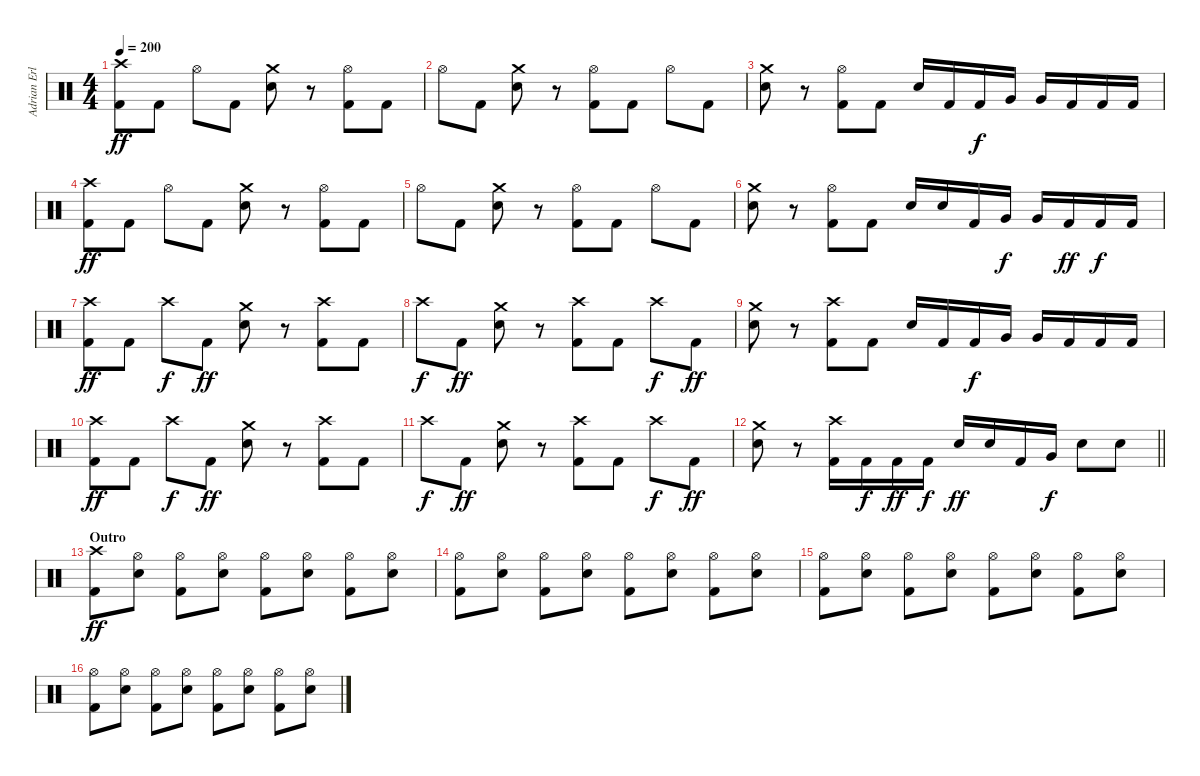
\track ("Adrian Erlandsson" "Adrian Erl") {instrument percussion}
\staff {score}
\articulation defaults
\ts (4 4)
\tempo 200
\clef neutral
\ks c
("Crash high (hit)" "Kick (hit) 2").8{dy ff} "Kick (hit) 2".8 "Hi-Hat (open)".8 "Kick (hit) 2".8 ("Crash medium (hit)" "Snare (hit) 2").8 r.8 ("Hi-Hat (open)" "Kick (hit) 2").8 "Kick (hit) 2".8 |
"Hi-Hat (open)".8 "Kick (hit) 2".8 ("Crash medium (hit)" "Snare (hit) 2").8 r.8 ("Hi-Hat (open)" "Kick (hit) 2").8 "Kick (hit) 2".8 "Hi-Hat (open)".8 "Kick (hit) 2".8 |
("Crash medium (hit)" "Snare (hit) 2").8 r.8 ("Hi-Hat (open)" "Kick (hit) 2").8 "Kick (hit) 2".8 "Snare (hit) 2".16 "Kick (hit) 2".16 "Kick (hit) 2".16{dy f} "Very Low Tom (hit)".16 "Very Low Tom (hit)".16 "Kick (hit) 2".16 "Kick (hit) 2".16 "Kick (hit) 2".16 |
("Crash high (hit)" "Kick (hit) 2").8{dy ff} "Kick (hit) 2".8 "Hi-Hat (open)".8 "Kick (hit) 2".8 ("Crash medium (hit)" "Snare (hit) 2").8 r.8 ("Hi-Hat (open)" "Kick (hit) 2").8 "Kick (hit) 2".8 |
"Hi-Hat (open)".8 "Kick (hit) 2".8 ("Crash medium (hit)" "Snare (hit) 2").8 r.8 ("Hi-Hat (open)" "Kick (hit) 2").8 "Kick (hit) 2".8 "Hi-Hat (open)".8 "Kick (hit) 2".8 |
("Crash medium (hit)" "Snare (hit) 2").8 r.8 ("Hi-Hat (open)" "Kick (hit) 2").8 "Kick (hit) 2".8 "Snare (hit) 2".16 "Snare (hit) 2".16 "Kick (hit) 2".16 "Very Low Tom (hit)".16{dy f} "Very Low Tom (hit)".16 "Kick (hit) 2".16{dy ff} "Kick (hit) 2".16{dy f} "Kick (hit) 2".16 |
("Crash high (hit)" "Kick (hit) 2").8{dy ff} "Kick (hit) 2".8 "Crash high (hit)".8{dy f} "Kick (hit) 2".8{dy ff} ("Crash medium (hit)" "Snare (hit) 2").8 r.8 ("Crash high (hit)" "Kick (hit) 2").8 "Kick (hit) 2".8 |
"Crash high (hit)".8{dy f} "Kick (hit) 2".8{dy ff} ("Crash medium (hit)" "Snare (hit) 2").8 r.8 ("Crash high (hit)" "Kick (hit) 2").8 "Kick (hit) 2".8 "Crash high (hit)".8{dy f} "Kick (hit) 2".8{dy ff} |
("Crash medium (hit)" "Snare (hit) 2").8 r.8 ("Crash high (hit)" "Kick (hit) 2").8 "Kick (hit) 2".8 "Snare (hit) 2".16 "Kick (hit) 2".16 "Kick (hit) 2".16{dy f} "Very Low Tom (hit)".16 "Very Low Tom (hit)".16 "Kick (hit) 2".16 "Kick (hit) 2".16 "Kick (hit) 2".16 |
("Crash high (hit)" "Kick (hit) 2").8{dy ff} "Kick (hit) 2".8 "Crash high (hit)".8{dy f} "Kick (hit) 2".8{dy ff} ("Crash medium (hit)" "Snare (hit) 2").8 r.8 ("Crash high (hit)" "Kick (hit) 2").8 "Kick (hit) 2".8 |
"Crash high (hit)".8{dy f} "Kick (hit) 2".8{dy ff} ("Crash medium (hit)" "Snare (hit) 2").8 r.8 ("Crash high (hit)" "Kick (hit) 2").8 "Kick (hit) 2".8 "Crash high (hit)".8{dy f} "Kick (hit) 2".8{dy ff} |
\barLineRight lightlight
("Crash medium (hit)" "Snare (hit) 2").8 r.8 ("Crash high (hit)" "Kick (hit) 2").16 "Kick (hit) 2".16{dy f} "Kick (hit) 2".16{dy ff} "Kick (hit) 2".16{dy f} "Snare (hit) 2".16{dy ff} "Snare (hit) 2".16 "Kick (hit) 2".16 "Very Low Tom (hit)".16{dy f} "Snare (hit) 2".8 "Snare (hit) 2".8 |
\section ("" "Outro")
("Crash high (hit)" "Kick (hit) 2").8{dy ff} ("Hi-Hat (open)" "Snare (hit) 2").8 ("Hi-Hat (open)" "Kick (hit) 2").8 ("Hi-Hat (open)" "Snare (hit) 2").8 ("Hi-Hat (open)" "Kick (hit) 2").8 ("Hi-Hat (open)" "Snare (hit) 2").8 ("Hi-Hat (open)" "Kick (hit) 2").8 ("Hi-Hat (open)" "Snare (hit) 2").8 |
("Hi-Hat (open)" "Kick (hit) 2").8 ("Hi-Hat (open)" "Snare (hit) 2").8 ("Hi-Hat (open)" "Kick (hit) 2").8 ("Hi-Hat (open)" "Snare (hit) 2").8 ("Hi-Hat (open)" "Kick (hit) 2").8 ("Hi-Hat (open)" "Snare (hit) 2").8 ("Hi-Hat (open)" "Kick (hit) 2").8 ("Hi-Hat (open)" "Snare (hit) 2").8 |
("Hi-Hat (open)" "Kick (hit) 2").8 ("Hi-Hat (open)" "Snare (hit) 2").8 ("Hi-Hat (open)" "Kick (hit) 2").8 ("Hi-Hat (open)" "Snare (hit) 2").8 ("Hi-Hat (open)" "Kick (hit) 2").8 ("Hi-Hat (open)" "Snare (hit) 2").8 ("Hi-Hat (open)" "Kick (hit) 2").8 ("Hi-Hat (open)" "Snare (hit) 2").8 |
("Hi-Hat (open)" "Kick (hit) 2").8 ("Hi-Hat (open)" "Snare (hit) 2").8 ("Hi-Hat (open)" "Kick (hit) 2").8 ("Hi-Hat (open)" "Snare (hit) 2").8 ("Hi-Hat (open)" "Kick (hit) 2").8 ("Hi-Hat (open)" "Snare (hit) 2").8 ("Hi-Hat (open)" "Kick (hit) 2").8 ("Hi-Hat (open)" "Snare (hit) 2").8
